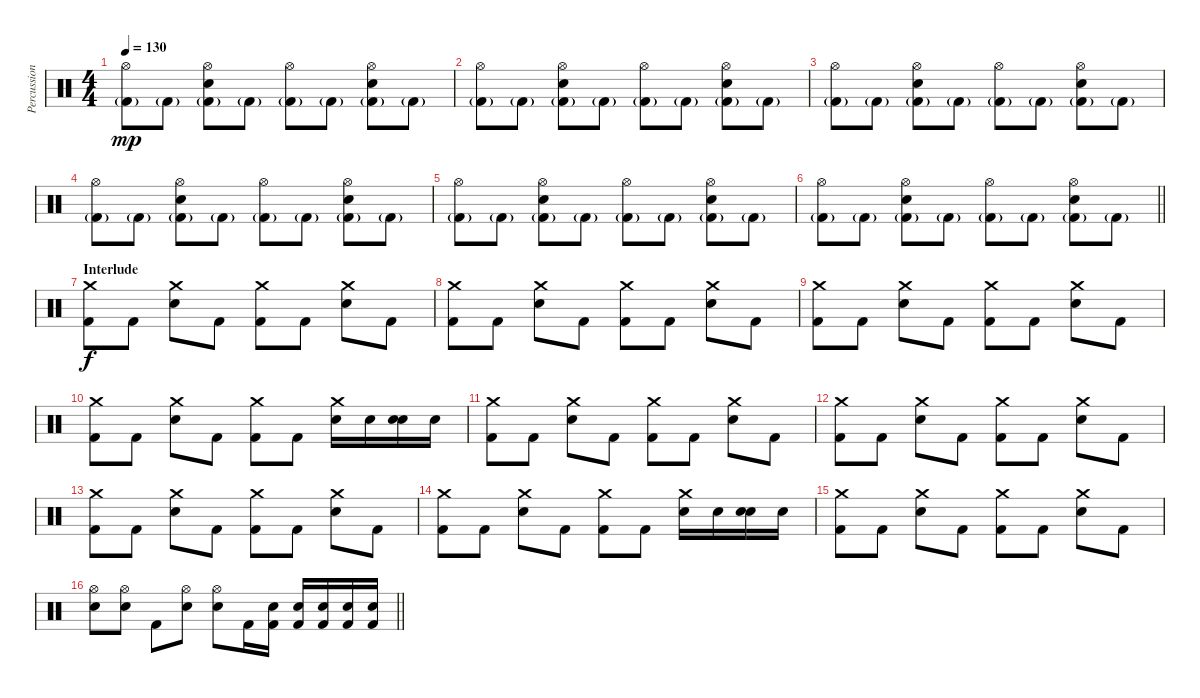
\track ("Percussions" "Percussion") {instrument percussion}
\staff {score}
\articulation defaults
\ts (4 4)
\tempo 130
\clef neutral
\ks c
("Hi-Hat (open)" "Kick (hit) 2"{g}).8{dy mp} "Kick (hit) 2"{g}.8 ("Hi-Hat (open)" "Electric Snare (hit)" "Kick (hit) 2"{g}).8 "Kick (hit) 2"{g}.8 ("Hi-Hat (open)" "Kick (hit) 2"{g}).8 "Kick (hit) 2"{g}.8 ("Hi-Hat (open)" "Electric Snare (hit)" "Kick (hit) 2"{g}).8 "Kick (hit) 2"{g}.8 |
("Hi-Hat (open)" "Kick (hit) 2"{g}).8 "Kick (hit) 2"{g}.8 ("Hi-Hat (open)" "Electric Snare (hit)" "Kick (hit) 2"{g}).8 "Kick (hit) 2"{g}.8 ("Hi-Hat (open)" "Kick (hit) 2"{g}).8 "Kick (hit) 2"{g}.8 ("Hi-Hat (open)" "Electric Snare (hit)" "Kick (hit) 2"{g}).8 "Kick (hit) 2"{g}.8 |
("Hi-Hat (open)" "Kick (hit) 2"{g}).8 "Kick (hit) 2"{g}.8 ("Hi-Hat (open)" "Electric Snare (hit)" "Kick (hit) 2"{g}).8 "Kick (hit) 2"{g}.8 ("Hi-Hat (open)" "Kick (hit) 2"{g}).8 "Kick (hit) 2"{g}.8 ("Hi-Hat (open)" "Electric Snare (hit)" "Kick (hit) 2"{g}).8 "Kick (hit) 2"{g}.8 |
("Hi-Hat (open)" "Kick (hit) 2"{g}).8 "Kick (hit) 2"{g}.8 ("Hi-Hat (open)" "Electric Snare (hit)" "Kick (hit) 2"{g}).8 "Kick (hit) 2"{g}.8 ("Hi-Hat (open)" "Kick (hit) 2"{g}).8 "Kick (hit) 2"{g}.8 ("Hi-Hat (open)" "Electric Snare (hit)" "Kick (hit) 2"{g}).8 "Kick (hit) 2"{g}.8 |
("Hi-Hat (open)" "Kick (hit) 2"{g}).8 "Kick (hit) 2"{g}.8 ("Hi-Hat (open)" "Electric Snare (hit)" "Kick (hit) 2"{g}).8 "Kick (hit) 2"{g}.8 ("Hi-Hat (open)" "Kick (hit) 2"{g}).8 "Kick (hit) 2"{g}.8 ("Hi-Hat (open)" "Electric Snare (hit)" "Kick (hit) 2"{g}).8 "Kick (hit) 2"{g}.8 |
\barLineRight lightlight
("Hi-Hat (open)" "Kick (hit) 2"{g}).8 "Kick (hit) 2"{g}.8 ("Hi-Hat (open)" "Electric Snare (hit)" "Kick (hit) 2"{g}).8 "Kick (hit) 2"{g}.8 ("Hi-Hat (open)" "Kick (hit) 2"{g}).8 "Kick (hit) 2"{g}.8 ("Hi-Hat (open)" "Electric Snare (hit)" "Kick (hit) 2"{g}).8 "Kick (hit) 2"{g}.8 |
\section ("" "Interlude")
("Crash medium (hit)" "Kick (hit) 2").8{dy f} "Kick (hit) 2".8 ("Crash medium (hit)" "Electric Snare (hit)").8 "Kick (hit) 2".8 ("Crash medium (hit)" "Kick (hit) 2").8 "Kick (hit) 2".8 ("Crash medium (hit)" "Electric Snare (hit)").8 "Kick (hit) 2".8 |
("Crash medium (hit)" "Kick (hit) 2").8 "Kick (hit) 2".8 ("Crash medium (hit)" "Electric Snare (hit)").8 "Kick (hit) 2".8 ("Crash medium (hit)" "Kick (hit) 2").8 "Kick (hit) 2".8 ("Crash medium (hit)" "Electric Snare (hit)").8 "Kick (hit) 2".8 |
("Crash medium (hit)" "Kick (hit) 2").8 "Kick (hit) 2".8 ("Crash medium (hit)" "Electric Snare (hit)").8 "Kick (hit) 2".8 ("Crash medium (hit)" "Kick (hit) 2").8 "Kick (hit) 2".8 ("Crash medium (hit)" "Electric Snare (hit)").8 "Kick (hit) 2".8 |
("Crash medium (hit)" "Kick (hit) 2").8 "Kick (hit) 2".8 ("Crash medium (hit)" "Electric Snare (hit)").8 "Kick (hit) 2".8 ("Crash medium (hit)" "Kick (hit) 2").8 "Kick (hit) 2".8 ("Crash medium (hit)" "Electric Snare (hit)").16 "Electric Snare (hit)".16 ("Electric Snare (hit)" "Electric Snare (hit)").16 "Electric Snare (hit)".16 |
("Crash medium (hit)" "Kick (hit) 2").8 "Kick (hit) 2".8 ("Crash medium (hit)" "Electric Snare (hit)").8 "Kick (hit) 2".8 ("Crash medium (hit)" "Kick (hit) 2").8 "Kick (hit) 2".8 ("Crash medium (hit)" "Electric Snare (hit)").8 "Kick (hit) 2".8 |
("Crash medium (hit)" "Kick (hit) 2").8 "Kick (hit) 2".8 ("Crash medium (hit)" "Electric Snare (hit)").8 "Kick (hit) 2".8 ("Crash medium (hit)" "Kick (hit) 2").8 "Kick (hit) 2".8 ("Crash medium (hit)" "Electric Snare (hit)").8 "Kick (hit) 2".8 |
("Crash medium (hit)" "Kick (hit) 2").8 "Kick (hit) 2".8 ("Crash medium (hit)" "Electric Snare (hit)").8 "Kick (hit) 2".8 ("Crash medium (hit)" "Kick (hit) 2").8 "Kick (hit) 2".8 ("Crash medium (hit)" "Electric Snare (hit)").8 "Kick (hit) 2".8 |
("Crash medium (hit)" "Kick (hit) 2").8 "Kick (hit) 2".8 ("Crash medium (hit)" "Electric Snare (hit)").8 "Kick (hit) 2".8 ("Crash medium (hit)" "Kick (hit) 2").8 "Kick (hit) 2".8 ("Crash medium (hit)" "Electric Snare (hit)").16 "Electric Snare (hit)".16 ("Electric Snare (hit)" "Electric Snare (hit)").16 "Electric Snare (hit)".16 |
("Crash medium (hit)" "Kick (hit) 2").8 "Kick (hit) 2".8 ("Crash medium (hit)" "Electric Snare (hit)").8 "Kick (hit) 2".8 ("Crash medium (hit)" "Kick (hit) 2").8 "Kick (hit) 2".8 ("Crash medium (hit)" "Electric Snare (hit)").8 "Kick (hit) 2".8 |
\barLineRight lightlight
("Hi-Hat (open)" "Electric Snare (hit)").8 ("Hi-Hat (open)" "Electric Snare (hit)").8 "Kick (hit) 2".8 ("Hi-Hat (open)" "Electric Snare (hit)").8 ("Hi-Hat (open)" "Electric Snare (hit)").8 "Kick (hit) 2".16 ("Electric Snare (hit)" "Kick (hit) 2").16 ("Electric Snare (hit)" "Kick (hit) 2").16 ("Electric Snare (hit)" "Kick (hit) 2").16 ("Electric Snare (hit)" "Kick (hit) 2").16 ("Electric Snare (hit)" "Kick (hit) 2").16
